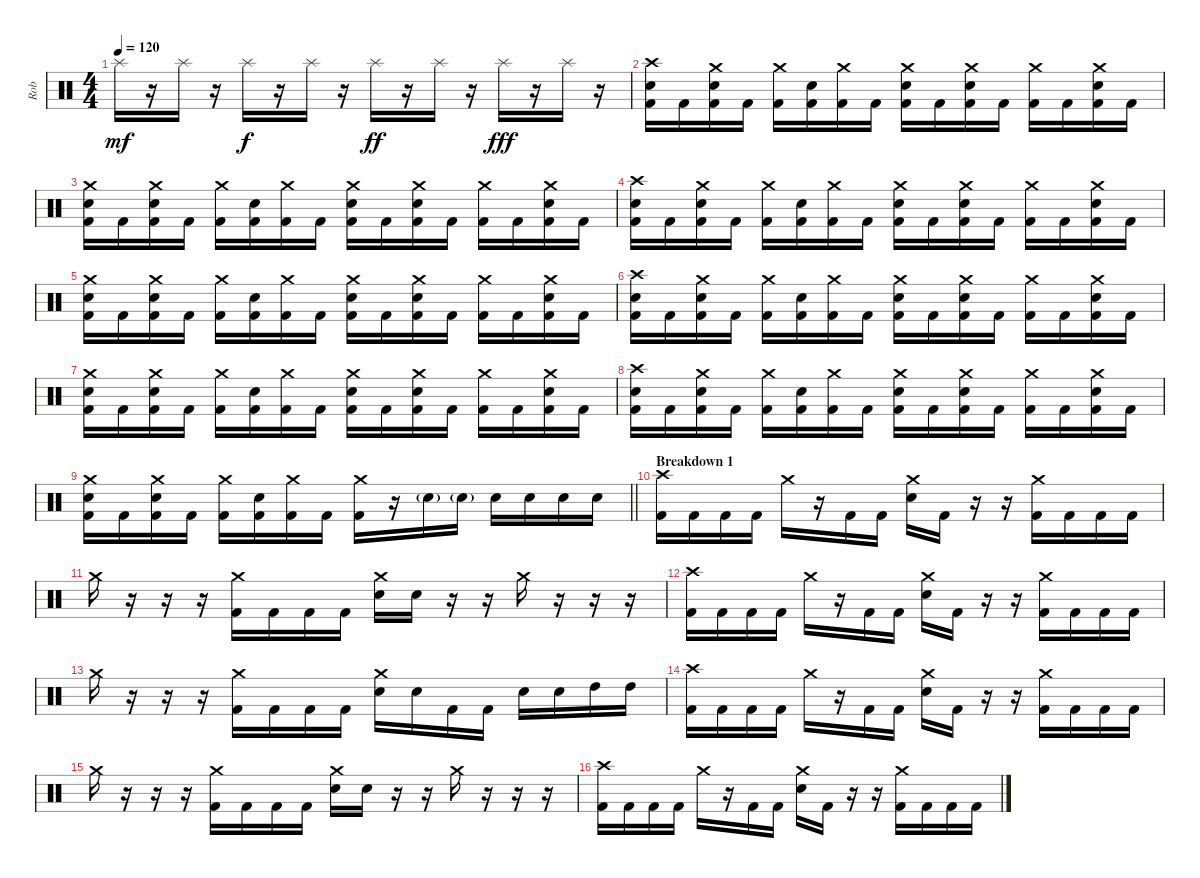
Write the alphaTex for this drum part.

\track ("Rob" "Rob") {instrument percussion}
\staff {score}
\articulation defaults
\ts (4 4)
\tempo 120
\clef neutral
\ks c "Splash (hit)".16{dy mf}
r.16 "Splash (hit)".16 r.16 "Splash (hit)".16{dy f} r.16 "Splash (hit)".16 r.16 "Splash (hit)".16{dy ff} r.16 "Splash (hit)".16 r.16 "Splash (hit)".16{dy fff} r.16 "Splash (hit)".16 r.16 |
("Crash high (hit)" "Electric Snare (hit)" "Kick (hit) 2").16 "Kick (hit) 2".16 ("Crash medium (hit)" "Electric Snare (hit)" "Kick (hit) 2").16 "Kick (hit) 2".16 ("Crash medium (hit)" "Kick (hit) 2").16 ("Electric Snare (hit)" "Kick (hit) 2").16 ("Crash medium (hit)" "Kick (hit) 2").16 "Kick (hit) 2".16 ("Crash medium (hit)" "Electric Snare (hit)" "Kick (hit) 2").16 "Kick (hit) 2".16 ("Crash medium (hit)" "Electric Snare (hit)" "Kick (hit) 2").16 "Kick (hit) 2".16 ("Crash medium (hit)" "Kick (hit) 2").16 "Kick (hit) 2".16 ("Crash medium (hit)" "Electric Snare (hit)" "Kick (hit) 2").16 "Kick (hit) 2".16 |
("Crash medium (hit)" "Electric Snare (hit)" "Kick (hit) 2").16 "Kick (hit) 2".16 ("Crash medium (hit)" "Electric Snare (hit)" "Kick (hit) 2").16 "Kick (hit) 2".16 ("Crash medium (hit)" "Kick (hit) 2").16 ("Electric Snare (hit)" "Kick (hit) 2").16 ("Crash medium (hit)" "Kick (hit) 2").16 "Kick (hit) 2".16 ("Crash medium (hit)" "Electric Snare (hit)" "Kick (hit) 2").16 "Kick (hit) 2".16 ("Crash medium (hit)" "Electric Snare (hit)" "Kick (hit) 2").16 "Kick (hit) 2".16 ("Crash medium (hit)" "Kick (hit) 2").16 "Kick (hit) 2".16 ("Crash medium (hit)" "Electric Snare (hit)" "Kick (hit) 2").16 "Kick (hit) 2".16 |
("Crash high (hit)" "Electric Snare (hit)" "Kick (hit) 2").16 "Kick (hit) 2".16 ("Crash medium (hit)" "Electric Snare (hit)" "Kick (hit) 2").16 "Kick (hit) 2".16 ("Crash medium (hit)" "Kick (hit) 2").16 ("Electric Snare (hit)" "Kick (hit) 2").16 ("Crash medium (hit)" "Kick (hit) 2").16 "Kick (hit) 2".16 ("Crash medium (hit)" "Electric Snare (hit)" "Kick (hit) 2").16 "Kick (hit) 2".16 ("Crash medium (hit)" "Electric Snare (hit)" "Kick (hit) 2").16 "Kick (hit) 2".16 ("Crash medium (hit)" "Kick (hit) 2").16 "Kick (hit) 2".16 ("Crash medium (hit)" "Electric Snare (hit)" "Kick (hit) 2").16 "Kick (hit) 2".16 |
("Crash medium (hit)" "Electric Snare (hit)" "Kick (hit) 2").16 "Kick (hit) 2".16 ("Crash medium (hit)" "Electric Snare (hit)" "Kick (hit) 2").16 "Kick (hit) 2".16 ("Crash medium (hit)" "Kick (hit) 2").16 ("Electric Snare (hit)" "Kick (hit) 2").16 ("Crash medium (hit)" "Kick (hit) 2").16 "Kick (hit) 2".16 ("Crash medium (hit)" "Electric Snare (hit)" "Kick (hit) 2").16 "Kick (hit) 2".16 ("Crash medium (hit)" "Electric Snare (hit)" "Kick (hit) 2").16 "Kick (hit) 2".16 ("Crash medium (hit)" "Kick (hit) 2").16 "Kick (hit) 2".16 ("Crash medium (hit)" "Electric Snare (hit)" "Kick (hit) 2").16 "Kick (hit) 2".16 |
("Crash high (hit)" "Electric Snare (hit)" "Kick (hit) 2").16 "Kick (hit) 2".16 ("Crash medium (hit)" "Electric Snare (hit)" "Kick (hit) 2").16 "Kick (hit) 2".16 ("Crash medium (hit)" "Kick (hit) 2").16 ("Electric Snare (hit)" "Kick (hit) 2").16 ("Crash medium (hit)" "Kick (hit) 2").16 "Kick (hit) 2".16 ("Crash medium (hit)" "Electric Snare (hit)" "Kick (hit) 2").16 "Kick (hit) 2".16 ("Crash medium (hit)" "Electric Snare (hit)" "Kick (hit) 2").16 "Kick (hit) 2".16 ("Crash medium (hit)" "Kick (hit) 2").16 "Kick (hit) 2".16 ("Crash medium (hit)" "Electric Snare (hit)" "Kick (hit) 2").16 "Kick (hit) 2".16 |
("Crash medium (hit)" "Electric Snare (hit)" "Kick (hit) 2").16 "Kick (hit) 2".16 ("Crash medium (hit)" "Electric Snare (hit)" "Kick (hit) 2").16 "Kick (hit) 2".16 ("Crash medium (hit)" "Kick (hit) 2").16 ("Electric Snare (hit)" "Kick (hit) 2").16 ("Crash medium (hit)" "Kick (hit) 2").16 "Kick (hit) 2".16 ("Crash medium (hit)" "Electric Snare (hit)" "Kick (hit) 2").16 "Kick (hit) 2".16 ("Crash medium (hit)" "Electric Snare (hit)" "Kick (hit) 2").16 "Kick (hit) 2".16 ("Crash medium (hit)" "Kick (hit) 2").16 "Kick (hit) 2".16 ("Crash medium (hit)" "Electric Snare (hit)" "Kick (hit) 2").16 "Kick (hit) 2".16 |
("Crash high (hit)" "Electric Snare (hit)" "Kick (hit) 2").16 "Kick (hit) 2".16 ("Crash medium (hit)" "Electric Snare (hit)" "Kick (hit) 2").16 "Kick (hit) 2".16 ("Crash medium (hit)" "Kick (hit) 2").16 ("Electric Snare (hit)" "Kick (hit) 2").16 ("Crash medium (hit)" "Kick (hit) 2").16 "Kick (hit) 2".16 ("Crash medium (hit)" "Electric Snare (hit)" "Kick (hit) 2").16 "Kick (hit) 2".16 ("Crash medium (hit)" "Electric Snare (hit)" "Kick (hit) 2").16 "Kick (hit) 2".16 ("Crash medium (hit)" "Kick (hit) 2").16 "Kick (hit) 2".16 ("Crash medium (hit)" "Electric Snare (hit)" "Kick (hit) 2").16 "Kick (hit) 2".16 |
\barLineRight lightlight
("Crash medium (hit)" "Electric Snare (hit)" "Kick (hit) 2").16 "Kick (hit) 2".16 ("Crash medium (hit)" "Electric Snare (hit)" "Kick (hit) 2").16 "Kick (hit) 2".16 ("Crash medium (hit)" "Kick (hit) 2").16 ("Electric Snare (hit)" "Kick (hit) 2").16 ("Crash medium (hit)" "Kick (hit) 2").16 "Kick (hit) 2".16 ("Crash medium (hit)" "Kick (hit) 2").16 r.16 "Electric Snare (hit)"{g}.16 "Electric Snare (hit)"{g}.16 "Electric Snare (hit)".16 "Electric Snare (hit)".16 "Electric Snare (hit)".16 "Electric Snare (hit)".16 |
\section ("" "Breakdown 1")
("Crash high (hit)" "Kick (hit) 2").16 "Kick (hit) 2".16 "Kick (hit) 2".16 "Kick (hit) 2".16 "Crash medium (hit)".16 r.16 "Kick (hit) 2".16 "Kick (hit) 2".16 ("Crash medium (hit)" "Electric Snare (hit)").16 "Kick (hit) 2".16 r.16 r.16 ("Crash medium (hit)" "Kick (hit) 2").16 "Kick (hit) 2".16 "Kick (hit) 2".16 "Kick (hit) 2".16 |
"Crash medium (hit)".16 r.16 r.16 r.16 ("Crash medium (hit)" "Kick (hit) 2").16 "Kick (hit) 2".16 "Kick (hit) 2".16 "Kick (hit) 2".16 ("Crash medium (hit)" "Electric Snare (hit)").16 "Electric Snare (hit)".16 r.16 r.16 "Crash medium (hit)".16 r.16 r.16 r.16 |
("Crash high (hit)" "Kick (hit) 2").16 "Kick (hit) 2".16 "Kick (hit) 2".16 "Kick (hit) 2".16 "Crash medium (hit)".16 r.16 "Kick (hit) 2".16 "Kick (hit) 2".16 ("Crash medium (hit)" "Electric Snare (hit)").16 "Kick (hit) 2".16 r.16 r.16 ("Crash medium (hit)" "Kick (hit) 2").16 "Kick (hit) 2".16 "Kick (hit) 2".16 "Kick (hit) 2".16 |
"Crash medium (hit)".16 r.16 r.16 r.16 ("Crash medium (hit)" "Kick (hit) 2").16 "Kick (hit) 2".16 "Kick (hit) 2".16 "Kick (hit) 2".16 ("Crash medium (hit)" "Electric Snare (hit)").16 "Electric Snare (hit)".16 "Kick (hit) 2".16 "Kick (hit) 2".16 "Electric Snare (hit)".16 "Electric Snare (hit)".16 "High Tom (hit)".16 "High Tom (hit)".16 |
("Crash high (hit)" "Kick (hit) 2").16 "Kick (hit) 2".16 "Kick (hit) 2".16 "Kick (hit) 2".16 "Crash medium (hit)".16 r.16 "Kick (hit) 2".16 "Kick (hit) 2".16 ("Crash medium (hit)" "Electric Snare (hit)").16 "Kick (hit) 2".16 r.16 r.16 ("Crash medium (hit)" "Kick (hit) 2").16 "Kick (hit) 2".16 "Kick (hit) 2".16 "Kick (hit) 2".16 |
"Crash medium (hit)".16 r.16 r.16 r.16 ("Crash medium (hit)" "Kick (hit) 2").16 "Kick (hit) 2".16 "Kick (hit) 2".16 "Kick (hit) 2".16 ("Crash medium (hit)" "Electric Snare (hit)").16 "Electric Snare (hit)".16 r.16 r.16 "Crash medium (hit)".16 r.16 r.16 r.16 |
("Crash high (hit)" "Kick (hit) 2").16 "Kick (hit) 2".16 "Kick (hit) 2".16 "Kick (hit) 2".16 "Crash medium (hit)".16 r.16 "Kick (hit) 2".16 "Kick (hit) 2".16 ("Crash medium (hit)" "Electric Snare (hit)").16 "Kick (hit) 2".16 r.16 r.16 ("Crash medium (hit)" "Kick (hit) 2").16 "Kick (hit) 2".16 "Kick (hit) 2".16 "Kick (hit) 2".16
